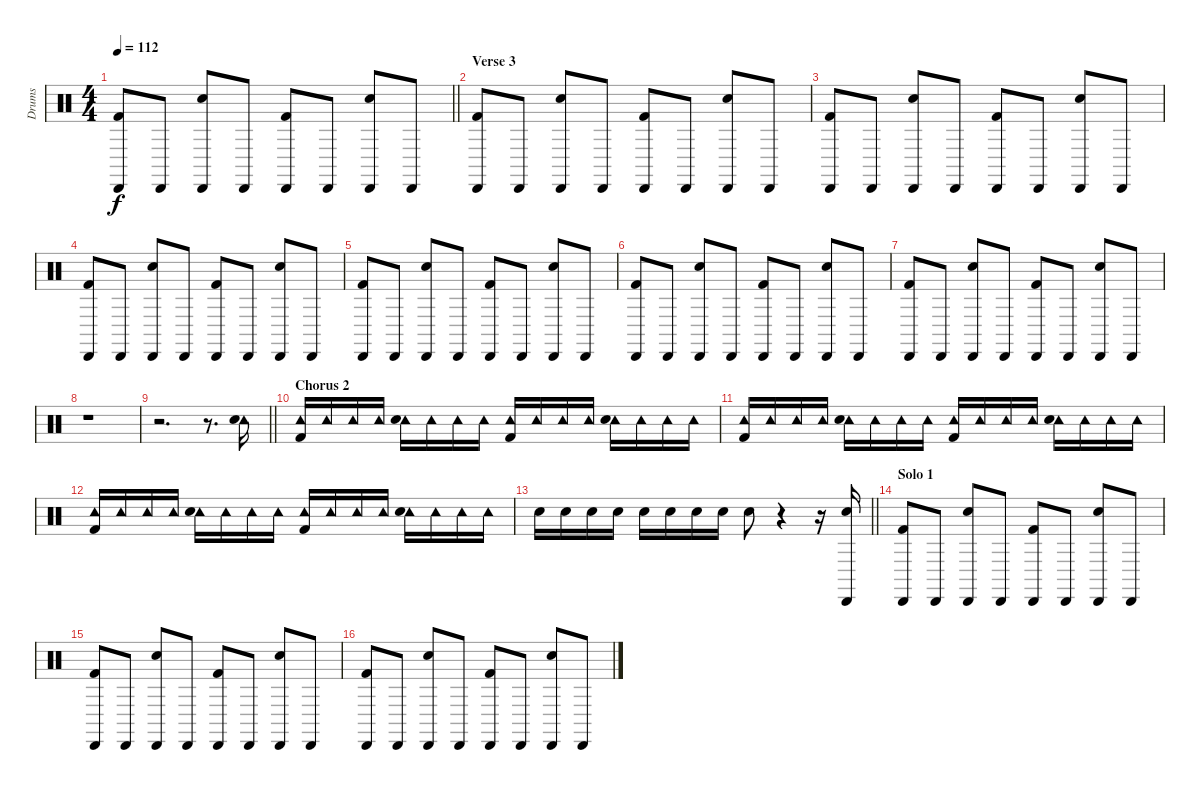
\track ("Drums" "Drums") {instrument percussion}
\staff {score}
\articulation defaults
\ts (4 4)
\tempo 112
\clef neutral
\barLineRight lightlight
\ks c
("Kick (hit) 2" "Cabasa (hit)").8{dy f} "Cabasa (hit)".8 ("Snare (hit) 2" "Cabasa (hit)").8 "Cabasa (hit)".8 ("Kick (hit) 2" "Cabasa (hit)").8 "Cabasa (hit)".8 ("Snare (hit) 2" "Cabasa (hit)").8 "Cabasa (hit)".8 |
\section ("" "Verse 3")
("Kick (hit) 2" "Cabasa (hit)").8 "Cabasa (hit)".8 ("Snare (hit) 2" "Cabasa (hit)").8 "Cabasa (hit)".8 ("Kick (hit) 2" "Cabasa (hit)").8 "Cabasa (hit)".8 ("Snare (hit) 2" "Cabasa (hit)").8 "Cabasa (hit)".8 |
("Kick (hit) 2" "Cabasa (hit)").8 "Cabasa (hit)".8 ("Snare (hit) 2" "Cabasa (hit)").8 "Cabasa (hit)".8 ("Kick (hit) 2" "Cabasa (hit)").8 "Cabasa (hit)".8 ("Snare (hit) 2" "Cabasa (hit)").8 "Cabasa (hit)".8 |
("Kick (hit) 2" "Cabasa (hit)").8 "Cabasa (hit)".8 ("Snare (hit) 2" "Cabasa (hit)").8 "Cabasa (hit)".8 ("Kick (hit) 2" "Cabasa (hit)").8 "Cabasa (hit)".8 ("Snare (hit) 2" "Cabasa (hit)").8 "Cabasa (hit)".8 |
("Kick (hit) 2" "Cabasa (hit)").8 "Cabasa (hit)".8 ("Snare (hit) 2" "Cabasa (hit)").8 "Cabasa (hit)".8 ("Kick (hit) 2" "Cabasa (hit)").8 "Cabasa (hit)".8 ("Snare (hit) 2" "Cabasa (hit)").8 "Cabasa (hit)".8 |
("Kick (hit) 2" "Cabasa (hit)").8 "Cabasa (hit)".8 ("Snare (hit) 2" "Cabasa (hit)").8 "Cabasa (hit)".8 ("Kick (hit) 2" "Cabasa (hit)").8 "Cabasa (hit)".8 ("Snare (hit) 2" "Cabasa (hit)").8 "Cabasa (hit)".8 |
("Kick (hit) 2" "Cabasa (hit)").8 "Cabasa (hit)".8 ("Snare (hit) 2" "Cabasa (hit)").8 "Cabasa (hit)".8 ("Kick (hit) 2" "Cabasa (hit)").8 "Cabasa (hit)".8 ("Snare (hit) 2" "Cabasa (hit)").8 "Cabasa (hit)".8 |
r.1 |
\barLineRight lightlight
r.2{d} r.8{d} ("Tambourine (hit)" "Snare (hit) 2").16 |
\section ("" "Chorus 2")
("Tambourine (hit)" "Kick (hit) 2").16 "Tambourine (hit)".16 "Tambourine (hit)".16 "Tambourine (hit)".16 ("Tambourine (hit)" "Snare (hit) 2").16 "Tambourine (hit)".16 "Tambourine (hit)".16 "Tambourine (hit)".16 ("Tambourine (hit)" "Kick (hit) 2").16 "Tambourine (hit)".16 "Tambourine (hit)".16 "Tambourine (hit)".16 ("Tambourine (hit)" "Snare (hit) 2").16 "Tambourine (hit)".16 "Tambourine (hit)".16 "Tambourine (hit)".16 |
("Tambourine (hit)" "Kick (hit) 2").16 "Tambourine (hit)".16 "Tambourine (hit)".16 "Tambourine (hit)".16 ("Tambourine (hit)" "Snare (hit) 2").16 "Tambourine (hit)".16 "Tambourine (hit)".16 "Tambourine (hit)".16 ("Tambourine (hit)" "Kick (hit) 2").16 "Tambourine (hit)".16 "Tambourine (hit)".16 "Tambourine (hit)".16 ("Tambourine (hit)" "Snare (hit) 2").16 "Tambourine (hit)".16 "Tambourine (hit)".16 "Tambourine (hit)".16 |
("Tambourine (hit)" "Kick (hit) 2").16 "Tambourine (hit)".16 "Tambourine (hit)".16 "Tambourine (hit)".16 ("Tambourine (hit)" "Snare (hit) 2").16 "Tambourine (hit)".16 "Tambourine (hit)".16 "Tambourine (hit)".16 ("Tambourine (hit)" "Kick (hit) 2").16 "Tambourine (hit)".16 "Tambourine (hit)".16 "Tambourine (hit)".16 ("Tambourine (hit)" "Snare (hit) 2").16 "Tambourine (hit)".16 "Tambourine (hit)".16 "Tambourine (hit)".16 |
\barLineRight lightlight "Snare (hit) 2".16 "Snare (hit) 2".16 "Snare (hit) 2".16 "Snare (hit) 2".16 "Snare (hit) 2".16 "Snare (hit) 2".16 "Snare (hit) 2".16 "Snare (hit) 2".16 "Snare (hit) 2".8
r.4 r.16 ("Snare (hit) 2" "Cabasa (hit)").16 |
\section ("" "Solo 1")
("Kick (hit) 2" "Cabasa (hit)").8 "Cabasa (hit)".8 ("Snare (hit) 2" "Cabasa (hit)").8 "Cabasa (hit)".8 ("Kick (hit) 2" "Cabasa (hit)").8 "Cabasa (hit)".8 ("Snare (hit) 2" "Cabasa (hit)").8 "Cabasa (hit)".8 |
("Kick (hit) 2" "Cabasa (hit)").8 "Cabasa (hit)".8 ("Snare (hit) 2" "Cabasa (hit)").8 "Cabasa (hit)".8 ("Kick (hit) 2" "Cabasa (hit)").8 "Cabasa (hit)".8 ("Snare (hit) 2" "Cabasa (hit)").8 "Cabasa (hit)".8 |
("Kick (hit) 2" "Cabasa (hit)").8 "Cabasa (hit)".8 ("Snare (hit) 2" "Cabasa (hit)").8 "Cabasa (hit)".8 ("Kick (hit) 2" "Cabasa (hit)").8 "Cabasa (hit)".8 ("Snare (hit) 2" "Cabasa (hit)").8 "Cabasa (hit)".8
